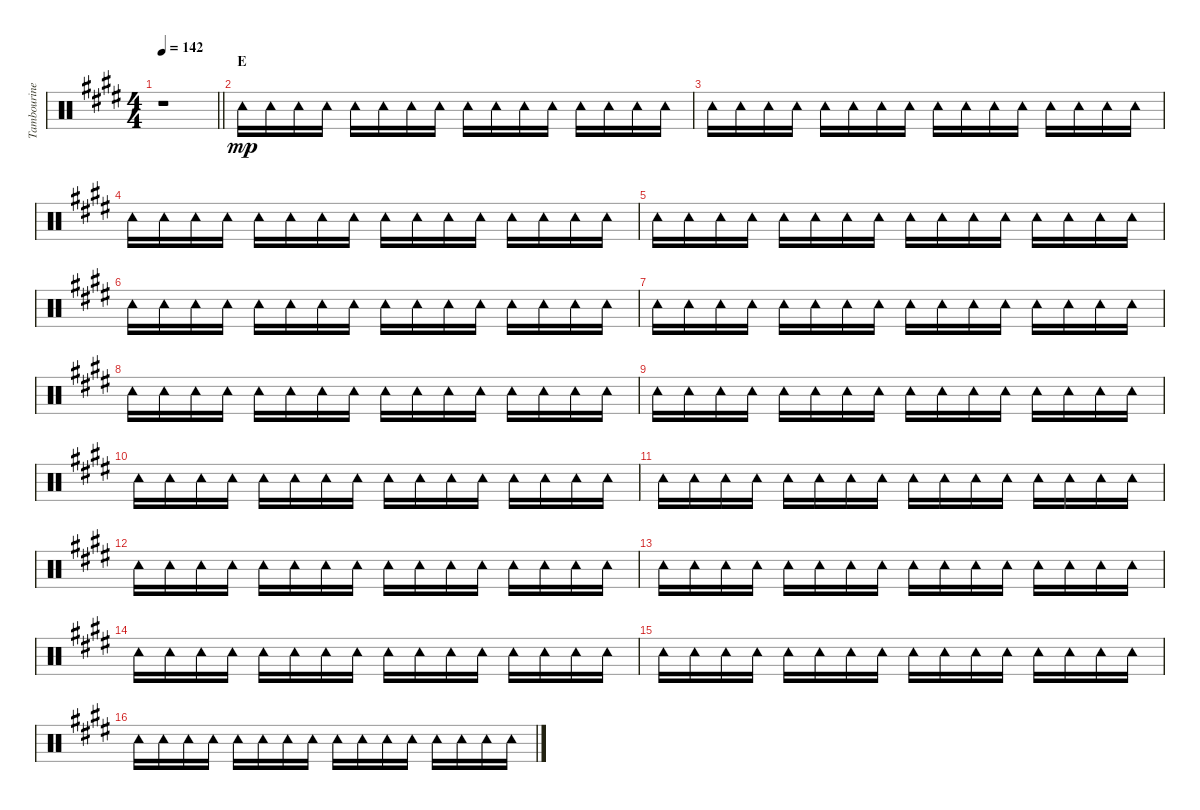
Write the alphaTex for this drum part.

\track ("Tambourine" "Tambourine") {instrument percussion}
\staff {score}
\articulation defaults
\ts (4 4)
\tempo 142
\clef neutral
\barLineRight lightlight
\ks e
r.1{dy mp} |
\section ("" "E")
"Tambourine (hit)".16 "Tambourine (hit)".16 "Tambourine (hit)".16 "Tambourine (hit)".16 "Tambourine (hit)".16 "Tambourine (hit)".16 "Tambourine (hit)".16 "Tambourine (hit)".16 "Tambourine (hit)".16 "Tambourine (hit)".16 "Tambourine (hit)".16 "Tambourine (hit)".16 "Tambourine (hit)".16 "Tambourine (hit)".16 "Tambourine (hit)".16 "Tambourine (hit)".16 |
"Tambourine (hit)".16 "Tambourine (hit)".16 "Tambourine (hit)".16 "Tambourine (hit)".16 "Tambourine (hit)".16 "Tambourine (hit)".16 "Tambourine (hit)".16 "Tambourine (hit)".16 "Tambourine (hit)".16 "Tambourine (hit)".16 "Tambourine (hit)".16 "Tambourine (hit)".16 "Tambourine (hit)".16 "Tambourine (hit)".16 "Tambourine (hit)".16 "Tambourine (hit)".16 |
"Tambourine (hit)".16 "Tambourine (hit)".16 "Tambourine (hit)".16 "Tambourine (hit)".16 "Tambourine (hit)".16 "Tambourine (hit)".16 "Tambourine (hit)".16 "Tambourine (hit)".16 "Tambourine (hit)".16 "Tambourine (hit)".16 "Tambourine (hit)".16 "Tambourine (hit)".16 "Tambourine (hit)".16 "Tambourine (hit)".16 "Tambourine (hit)".16 "Tambourine (hit)".16 |
"Tambourine (hit)".16 "Tambourine (hit)".16 "Tambourine (hit)".16 "Tambourine (hit)".16 "Tambourine (hit)".16 "Tambourine (hit)".16 "Tambourine (hit)".16 "Tambourine (hit)".16 "Tambourine (hit)".16 "Tambourine (hit)".16 "Tambourine (hit)".16 "Tambourine (hit)".16 "Tambourine (hit)".16 "Tambourine (hit)".16 "Tambourine (hit)".16 "Tambourine (hit)".16 |
"Tambourine (hit)".16 "Tambourine (hit)".16 "Tambourine (hit)".16 "Tambourine (hit)".16 "Tambourine (hit)".16 "Tambourine (hit)".16 "Tambourine (hit)".16 "Tambourine (hit)".16 "Tambourine (hit)".16 "Tambourine (hit)".16 "Tambourine (hit)".16 "Tambourine (hit)".16 "Tambourine (hit)".16 "Tambourine (hit)".16 "Tambourine (hit)".16 "Tambourine (hit)".16 |
"Tambourine (hit)".16 "Tambourine (hit)".16 "Tambourine (hit)".16 "Tambourine (hit)".16 "Tambourine (hit)".16 "Tambourine (hit)".16 "Tambourine (hit)".16 "Tambourine (hit)".16 "Tambourine (hit)".16 "Tambourine (hit)".16 "Tambourine (hit)".16 "Tambourine (hit)".16 "Tambourine (hit)".16 "Tambourine (hit)".16 "Tambourine (hit)".16 "Tambourine (hit)".16 |
"Tambourine (hit)".16 "Tambourine (hit)".16 "Tambourine (hit)".16 "Tambourine (hit)".16 "Tambourine (hit)".16 "Tambourine (hit)".16 "Tambourine (hit)".16 "Tambourine (hit)".16 "Tambourine (hit)".16 "Tambourine (hit)".16 "Tambourine (hit)".16 "Tambourine (hit)".16 "Tambourine (hit)".16 "Tambourine (hit)".16 "Tambourine (hit)".16 "Tambourine (hit)".16 |
"Tambourine (hit)".16 "Tambourine (hit)".16 "Tambourine (hit)".16 "Tambourine (hit)".16 "Tambourine (hit)".16 "Tambourine (hit)".16 "Tambourine (hit)".16 "Tambourine (hit)".16 "Tambourine (hit)".16 "Tambourine (hit)".16 "Tambourine (hit)".16 "Tambourine (hit)".16 "Tambourine (hit)".16 "Tambourine (hit)".16 "Tambourine (hit)".16 "Tambourine (hit)".16 |
"Tambourine (hit)".16 "Tambourine (hit)".16 "Tambourine (hit)".16 "Tambourine (hit)".16 "Tambourine (hit)".16 "Tambourine (hit)".16 "Tambourine (hit)".16 "Tambourine (hit)".16 "Tambourine (hit)".16 "Tambourine (hit)".16 "Tambourine (hit)".16 "Tambourine (hit)".16 "Tambourine (hit)".16 "Tambourine (hit)".16 "Tambourine (hit)".16 "Tambourine (hit)".16 |
"Tambourine (hit)".16 "Tambourine (hit)".16 "Tambourine (hit)".16 "Tambourine (hit)".16 "Tambourine (hit)".16 "Tambourine (hit)".16 "Tambourine (hit)".16 "Tambourine (hit)".16 "Tambourine (hit)".16 "Tambourine (hit)".16 "Tambourine (hit)".16 "Tambourine (hit)".16 "Tambourine (hit)".16 "Tambourine (hit)".16 "Tambourine (hit)".16 "Tambourine (hit)".16 |
"Tambourine (hit)".16 "Tambourine (hit)".16 "Tambourine (hit)".16 "Tambourine (hit)".16 "Tambourine (hit)".16 "Tambourine (hit)".16 "Tambourine (hit)".16 "Tambourine (hit)".16 "Tambourine (hit)".16 "Tambourine (hit)".16 "Tambourine (hit)".16 "Tambourine (hit)".16 "Tambourine (hit)".16 "Tambourine (hit)".16 "Tambourine (hit)".16 "Tambourine (hit)".16 |
"Tambourine (hit)".16 "Tambourine (hit)".16 "Tambourine (hit)".16 "Tambourine (hit)".16 "Tambourine (hit)".16 "Tambourine (hit)".16 "Tambourine (hit)".16 "Tambourine (hit)".16 "Tambourine (hit)".16 "Tambourine (hit)".16 "Tambourine (hit)".16 "Tambourine (hit)".16 "Tambourine (hit)".16 "Tambourine (hit)".16 "Tambourine (hit)".16 "Tambourine (hit)".16 |
"Tambourine (hit)".16 "Tambourine (hit)".16 "Tambourine (hit)".16 "Tambourine (hit)".16 "Tambourine (hit)".16 "Tambourine (hit)".16 "Tambourine (hit)".16 "Tambourine (hit)".16 "Tambourine (hit)".16 "Tambourine (hit)".16 "Tambourine (hit)".16 "Tambourine (hit)".16 "Tambourine (hit)".16 "Tambourine (hit)".16 "Tambourine (hit)".16 "Tambourine (hit)".16 |
"Tambourine (hit)".16 "Tambourine (hit)".16 "Tambourine (hit)".16 "Tambourine (hit)".16 "Tambourine (hit)".16 "Tambourine (hit)".16 "Tambourine (hit)".16 "Tambourine (hit)".16 "Tambourine (hit)".16 "Tambourine (hit)".16 "Tambourine (hit)".16 "Tambourine (hit)".16 "Tambourine (hit)".16 "Tambourine (hit)".16 "Tambourine (hit)".16 "Tambourine (hit)".16 |
"Tambourine (hit)".16 "Tambourine (hit)".16 "Tambourine (hit)".16 "Tambourine (hit)".16 "Tambourine (hit)".16 "Tambourine (hit)".16 "Tambourine (hit)".16 "Tambourine (hit)".16 "Tambourine (hit)".16 "Tambourine (hit)".16 "Tambourine (hit)".16 "Tambourine (hit)".16 "Tambourine (hit)".16 "Tambourine (hit)".16 "Tambourine (hit)".16 "Tambourine (hit)".16
